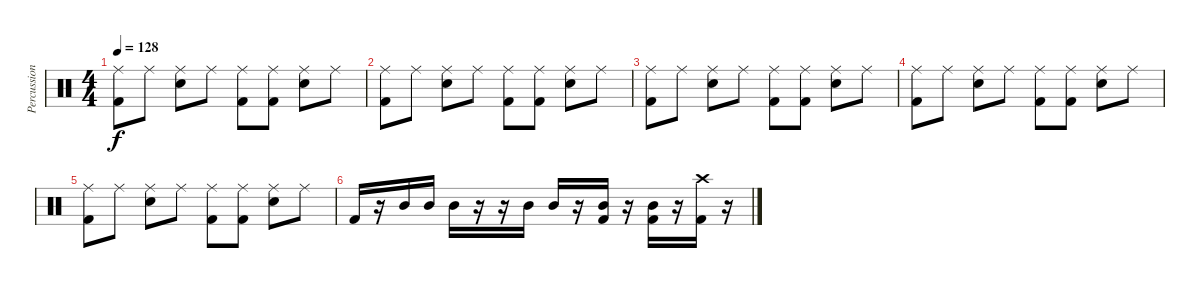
\track ("Percussion" "Percussion") {instrument percussion bank 10}
\staff {score}
\articulation defaults
\ts (4 4)
\tempo 128
\clef neutral
\ks c
("Ride (middle)" "Kick (hit) 2").8{dy f} "Ride (middle)".8 ("Ride (middle)" "Snare (hit) 2").8 "Ride (middle)".8 ("Ride (middle)" "Kick (hit) 2").8 ("Ride (middle)" "Kick (hit) 2").8 ("Ride (middle)" "Snare (hit) 2").8 "Ride (middle)".8 |
("Ride (middle)" "Kick (hit) 2").8 "Ride (middle)".8 ("Ride (middle)" "Snare (hit) 2").8 "Ride (middle)".8 ("Ride (middle)" "Kick (hit) 2").8 ("Ride (middle)" "Kick (hit) 2").8 ("Ride (middle)" "Snare (hit) 2").8 "Ride (middle)".8 |
("Ride (middle)" "Kick (hit) 2").8 "Ride (middle)".8 ("Ride (middle)" "Snare (hit) 2").8 "Ride (middle)".8 ("Ride (middle)" "Kick (hit) 2").8 ("Ride (middle)" "Kick (hit) 2").8 ("Ride (middle)" "Snare (hit) 2").8 "Ride (middle)".8 |
("Ride (middle)" "Kick (hit) 2").8 "Ride (middle)".8 ("Ride (middle)" "Snare (hit) 2").8 "Ride (middle)".8 ("Ride (middle)" "Kick (hit) 2").8 ("Ride (middle)" "Kick (hit) 2").8 ("Ride (middle)" "Snare (hit) 2").8 "Ride (middle)".8 |
("Ride (middle)" "Kick (hit) 2").8 "Ride (middle)".8 ("Ride (middle)" "Snare (hit) 2").8 "Ride (middle)".8 ("Ride (middle)" "Kick (hit) 2").8 ("Ride (middle)" "Kick (hit) 2").8 ("Ride (middle)" "Snare (hit) 2").8 "Ride (middle)".8 |
"Kick (hit) 2".16 r.16 "Mid Tom (hit)".16 "Mid Tom (hit)".16 "Mid Tom (hit)".16 r.16 r.16 "Mid Tom (hit)".16 "Mid Tom (hit)".16 r.16 ("Mid Tom (hit)" "Kick (hit) 2").16 r.16 ("Mid Tom (hit)" "Kick (hit) 2").16 r.16 ("Crash high (hit)" "Kick (hit) 2").16 r.16
